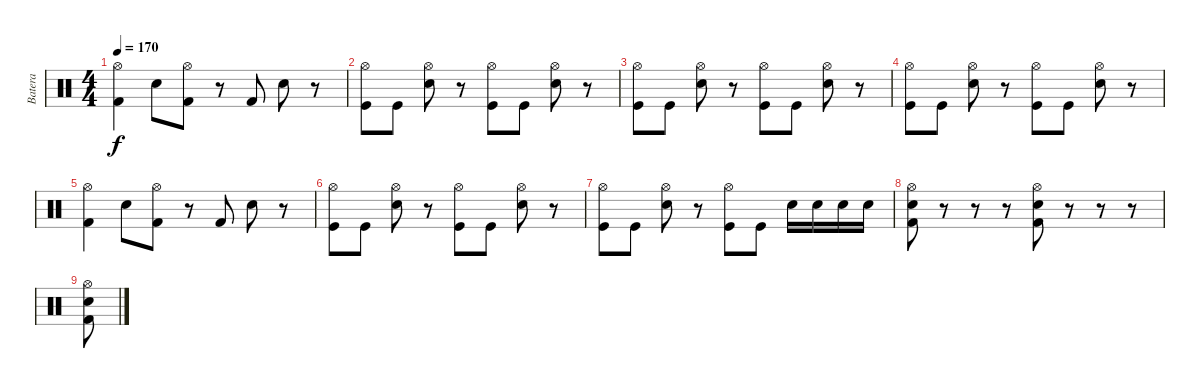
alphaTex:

\track ("Batera" "Batera") {instrument percussion}
\staff {score}
\articulation defaults
\ts (4 4)
\tempo 170
\clef neutral
\ks c
("Hi-Hat (open)" "Kick (hit) 2").4{dy f} "Electric Snare (hit)".8 ("Hi-Hat (open)" "Kick (hit) 2").8 r.8 "Kick (hit) 2".8 "Electric Snare (hit)".8 r.8 |
("Hi-Hat (open)" "Kick (hit)").8 "Kick (hit)".8 ("Hi-Hat (open)" "Electric Snare (hit)").8 r.8 ("Hi-Hat (open)" "Kick (hit)").8 "Kick (hit)".8 ("Hi-Hat (open)" "Electric Snare (hit)").8 r.8 |
("Hi-Hat (open)" "Kick (hit)").8 "Kick (hit)".8 ("Hi-Hat (open)" "Electric Snare (hit)").8 r.8 ("Hi-Hat (open)" "Kick (hit)").8 "Kick (hit)".8 ("Hi-Hat (open)" "Electric Snare (hit)").8 r.8 |
("Hi-Hat (open)" "Kick (hit)").8 "Kick (hit)".8 ("Hi-Hat (open)" "Electric Snare (hit)").8 r.8 ("Hi-Hat (open)" "Kick (hit)").8 "Kick (hit)".8 ("Hi-Hat (open)" "Electric Snare (hit)").8 r.8 |
("Hi-Hat (open)" "Kick (hit) 2").4 "Electric Snare (hit)".8 ("Hi-Hat (open)" "Kick (hit) 2").8 r.8 "Kick (hit) 2".8 "Electric Snare (hit)".8 r.8 |
("Hi-Hat (open)" "Kick (hit)").8 "Kick (hit)".8 ("Hi-Hat (open)" "Electric Snare (hit)").8 r.8 ("Hi-Hat (open)" "Kick (hit)").8 "Kick (hit)".8 ("Hi-Hat (open)" "Electric Snare (hit)").8 r.8 |
("Hi-Hat (open)" "Kick (hit)").8 "Kick (hit)".8 ("Hi-Hat (open)" "Electric Snare (hit)").8 r.8 ("Hi-Hat (open)" "Kick (hit)").8 "Kick (hit)".8 "Electric Snare (hit)".16 "Electric Snare (hit)".16 "Electric Snare (hit)".16 "Electric Snare (hit)".16 |
("Hi-Hat (open)" "Electric Snare (hit)" "Kick (hit) 2").8 r.8 r.8 r.8 ("Hi-Hat (open)" "Electric Snare (hit)" "Kick (hit) 2").8 r.8 r.8 r.8 |
("Hi-Hat (open)" "Electric Snare (hit)" "Kick (hit) 2").8
